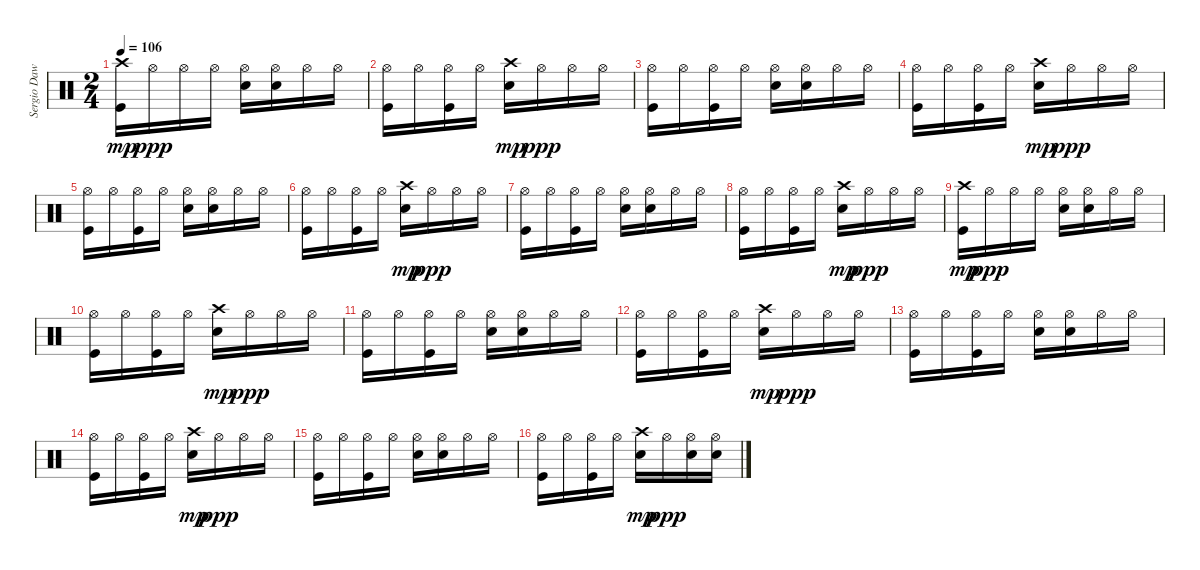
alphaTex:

\track ("Sergio Dawi" "Sergio Daw") {instrument percussion}
\staff {score}
\articulation defaults
\ts (2 4)
\tempo 106
\clef neutral
\ks c
("Kick (hit)" "Crash high (hit)").16{dy mp} "Hi-Hat (open)".16{dy ppp} "Hi-Hat (open)".16 "Hi-Hat (open)".16 ("Electric Snare (hit)" "Hi-Hat (open)").16 ("Electric Snare (hit)" "Hi-Hat (open)").16 "Hi-Hat (open)".16 "Hi-Hat (open)".16 |
("Kick (hit)" "Hi-Hat (open)").16 "Hi-Hat (open)".16 ("Kick (hit)" "Hi-Hat (open)").16 "Hi-Hat (open)".16 ("Electric Snare (hit)" "Crash high (hit)").16{dy mp} "Hi-Hat (open)".16{dy ppp} "Hi-Hat (open)".16 "Hi-Hat (open)".16 |
("Kick (hit)" "Hi-Hat (open)").16 "Hi-Hat (open)".16 ("Kick (hit)" "Hi-Hat (open)").16 "Hi-Hat (open)".16 ("Electric Snare (hit)" "Hi-Hat (open)").16 ("Electric Snare (hit)" "Hi-Hat (open)").16 "Hi-Hat (open)".16 "Hi-Hat (open)".16 |
("Kick (hit)" "Hi-Hat (open)").16 "Hi-Hat (open)".16 ("Kick (hit)" "Hi-Hat (open)").16 "Hi-Hat (open)".16 ("Electric Snare (hit)" "Crash high (hit)").16{dy mp} "Hi-Hat (open)".16{dy ppp} "Hi-Hat (open)".16 "Hi-Hat (open)".16 |
("Kick (hit)" "Hi-Hat (open)").16 "Hi-Hat (open)".16 ("Kick (hit)" "Hi-Hat (open)").16 "Hi-Hat (open)".16 ("Electric Snare (hit)" "Hi-Hat (open)").16 ("Electric Snare (hit)" "Hi-Hat (open)").16 "Hi-Hat (open)".16 "Hi-Hat (open)".16 |
("Kick (hit)" "Hi-Hat (open)").16 "Hi-Hat (open)".16 ("Kick (hit)" "Hi-Hat (open)").16 "Hi-Hat (open)".16 ("Electric Snare (hit)" "Crash high (hit)").16{dy mp} "Hi-Hat (open)".16{dy ppp} "Hi-Hat (open)".16 "Hi-Hat (open)".16 |
("Kick (hit)" "Hi-Hat (open)").16 "Hi-Hat (open)".16 ("Kick (hit)" "Hi-Hat (open)").16 "Hi-Hat (open)".16 ("Electric Snare (hit)" "Hi-Hat (open)").16 ("Electric Snare (hit)" "Hi-Hat (open)").16 "Hi-Hat (open)".16 "Hi-Hat (open)".16 |
("Kick (hit)" "Hi-Hat (open)").16 "Hi-Hat (open)".16 ("Kick (hit)" "Hi-Hat (open)").16 "Hi-Hat (open)".16 ("Electric Snare (hit)" "Crash high (hit)").16{dy mp} "Hi-Hat (open)".16{dy ppp} "Hi-Hat (open)".16 "Hi-Hat (open)".16 |
("Kick (hit)" "Crash high (hit)").16{dy mp} "Hi-Hat (open)".16{dy ppp} "Hi-Hat (open)".16 "Hi-Hat (open)".16 ("Electric Snare (hit)" "Hi-Hat (open)").16 ("Electric Snare (hit)" "Hi-Hat (open)").16 "Hi-Hat (open)".16 "Hi-Hat (open)".16 |
("Kick (hit)" "Hi-Hat (open)").16 "Hi-Hat (open)".16 ("Kick (hit)" "Hi-Hat (open)").16 "Hi-Hat (open)".16 ("Electric Snare (hit)" "Crash high (hit)").16{dy mp} "Hi-Hat (open)".16{dy ppp} "Hi-Hat (open)".16 "Hi-Hat (open)".16 |
("Kick (hit)" "Hi-Hat (open)").16 "Hi-Hat (open)".16 ("Kick (hit)" "Hi-Hat (open)").16 "Hi-Hat (open)".16 ("Electric Snare (hit)" "Hi-Hat (open)").16 ("Electric Snare (hit)" "Hi-Hat (open)").16 "Hi-Hat (open)".16 "Hi-Hat (open)".16 |
("Kick (hit)" "Hi-Hat (open)").16 "Hi-Hat (open)".16 ("Kick (hit)" "Hi-Hat (open)").16 "Hi-Hat (open)".16 ("Electric Snare (hit)" "Crash high (hit)").16{dy mp} "Hi-Hat (open)".16{dy ppp} "Hi-Hat (open)".16 "Hi-Hat (open)".16 |
("Kick (hit)" "Hi-Hat (open)").16 "Hi-Hat (open)".16 ("Kick (hit)" "Hi-Hat (open)").16 "Hi-Hat (open)".16 ("Electric Snare (hit)" "Hi-Hat (open)").16 ("Electric Snare (hit)" "Hi-Hat (open)").16 "Hi-Hat (open)".16 "Hi-Hat (open)".16 |
("Kick (hit)" "Hi-Hat (open)").16 "Hi-Hat (open)".16 ("Kick (hit)" "Hi-Hat (open)").16 "Hi-Hat (open)".16 ("Electric Snare (hit)" "Crash high (hit)").16{dy mp} "Hi-Hat (open)".16{dy ppp} "Hi-Hat (open)".16 "Hi-Hat (open)".16 |
("Kick (hit)" "Hi-Hat (open)").16 "Hi-Hat (open)".16 ("Kick (hit)" "Hi-Hat (open)").16 "Hi-Hat (open)".16 ("Electric Snare (hit)" "Hi-Hat (open)").16 ("Electric Snare (hit)" "Hi-Hat (open)").16 "Hi-Hat (open)".16 "Hi-Hat (open)".16 |
("Kick (hit)" "Hi-Hat (open)").16 "Hi-Hat (open)".16 ("Kick (hit)" "Hi-Hat (open)").16 "Hi-Hat (open)".16 ("Electric Snare (hit)" "Crash high (hit)").16{dy mp} "Hi-Hat (open)".16{dy ppp} ("Electric Snare (hit)" "Hi-Hat (open)").16 ("Electric Snare (hit)" "Hi-Hat (open)").16
